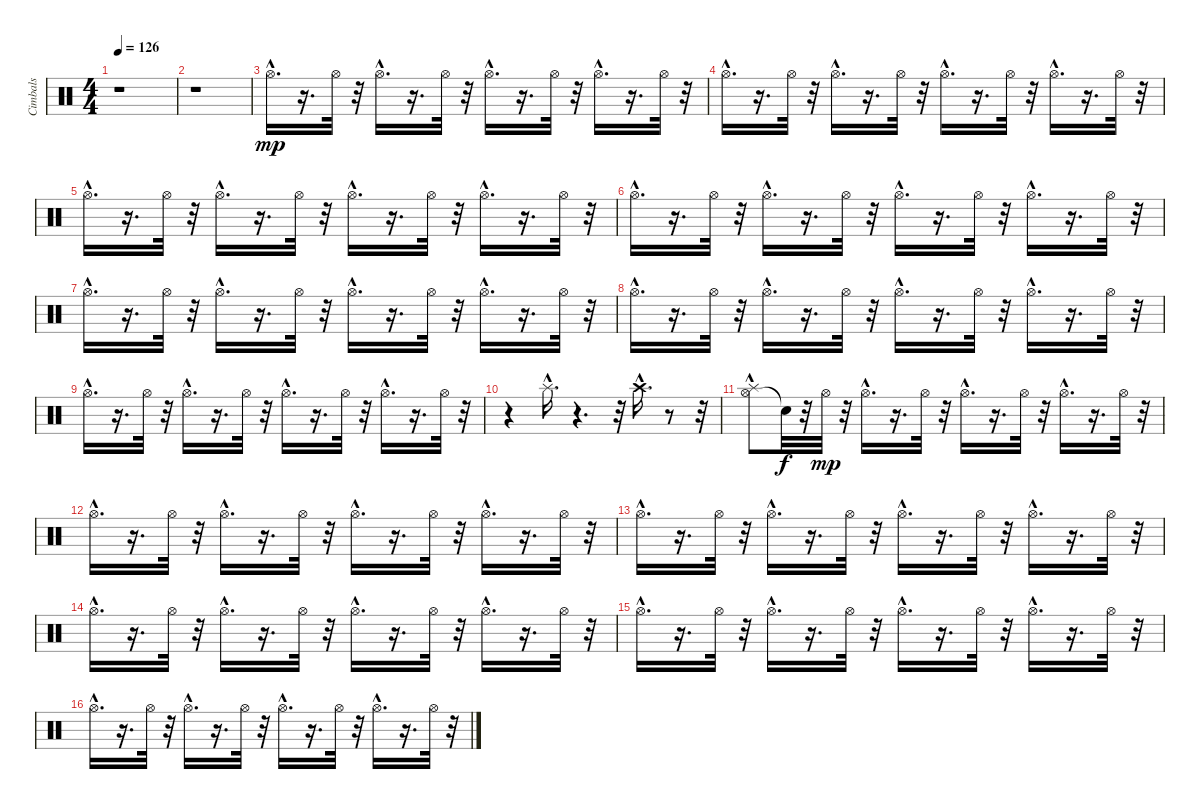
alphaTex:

\track ("Cimbals" "Cimbals") {instrument percussion}
\staff {score}
\articulation defaults
\ts (4 4)
\tempo 126
\clef neutral
\ks c
r.1{dy mp} |
r.1 |
"Hi-Hat (open)"{hac}.16{d} r.16{d} "Hi-Hat (open)".32 r.32 "Hi-Hat (open)"{hac}.16{d} r.16{d} "Hi-Hat (open)".32 r.32 "Hi-Hat (open)"{hac}.16{d} r.16{d} "Hi-Hat (open)".32 r.32 "Hi-Hat (open)"{hac}.16{d} r.16{d} "Hi-Hat (open)".32 r.32 |
"Hi-Hat (open)"{hac}.16{d} r.16{d} "Hi-Hat (open)".32 r.32 "Hi-Hat (open)"{hac}.16{d} r.16{d} "Hi-Hat (open)".32 r.32 "Hi-Hat (open)"{hac}.16{d} r.16{d} "Hi-Hat (open)".32 r.32 "Hi-Hat (open)"{hac}.16{d} r.16{d} "Hi-Hat (open)".32 r.32 |
"Hi-Hat (open)"{hac}.16{d} r.16{d} "Hi-Hat (open)".32 r.32 "Hi-Hat (open)"{hac}.16{d} r.16{d} "Hi-Hat (open)".32 r.32 "Hi-Hat (open)"{hac}.16{d} r.16{d} "Hi-Hat (open)".32 r.32 "Hi-Hat (open)"{hac}.16{d} r.16{d} "Hi-Hat (open)".32 r.32 |
"Hi-Hat (open)"{hac}.16{d} r.16{d} "Hi-Hat (open)".32 r.32 "Hi-Hat (open)"{hac}.16{d} r.16{d} "Hi-Hat (open)".32 r.32 "Hi-Hat (open)"{hac}.16{d} r.16{d} "Hi-Hat (open)".32 r.32 "Hi-Hat (open)"{hac}.16{d} r.16{d} "Hi-Hat (open)".32 r.32 |
"Hi-Hat (open)"{hac}.16{d} r.16{d} "Hi-Hat (open)".32 r.32 "Hi-Hat (open)"{hac}.16{d} r.16{d} "Hi-Hat (open)".32 r.32 "Hi-Hat (open)"{hac}.16{d} r.16{d} "Hi-Hat (open)".32 r.32 "Hi-Hat (open)"{hac}.16{d} r.16{d} "Hi-Hat (open)".32 r.32 |
"Hi-Hat (open)"{hac}.16{d} r.16{d} "Hi-Hat (open)".32 r.32 "Hi-Hat (open)"{hac}.16{d} r.16{d} "Hi-Hat (open)".32 r.32 "Hi-Hat (open)"{hac}.16{d} r.16{d} "Hi-Hat (open)".32 r.32 "Hi-Hat (open)"{hac}.16{d} r.16{d} "Hi-Hat (open)".32 r.32 |
"Hi-Hat (open)"{hac}.16{d} r.16{d} "Hi-Hat (open)".32 r.32 "Hi-Hat (open)"{hac}.16{d} r.16{d} "Hi-Hat (open)".32 r.32 "Hi-Hat (open)"{hac}.16{d} r.16{d} "Hi-Hat (open)".32 r.32 "Hi-Hat (open)"{hac}.16{d} r.16{d} "Hi-Hat (open)".32 r.32 |
r.4 "Splash (hit)"{hac}.16{d} r.4{d} r.32 "Crash high (hit)"{hac}.16{d} r.8 r.32 |
("Hi-Hat (open)"{hac} "Splash (hit)").8 "Snare (hit)"{t}.32{dy f} r.32 "Hi-Hat (open)".32{dy mp} r.32 "Hi-Hat (open)"{hac}.16{d} r.16{d} "Hi-Hat (open)".32 r.32 "Hi-Hat (open)"{hac}.16{d} r.16{d} "Hi-Hat (open)".32 r.32 "Hi-Hat (open)"{hac}.16{d} r.16{d} "Hi-Hat (open)".32 r.32 |
"Hi-Hat (open)"{hac}.16{d} r.16{d} "Hi-Hat (open)".32 r.32 "Hi-Hat (open)"{hac}.16{d} r.16{d} "Hi-Hat (open)".32 r.32 "Hi-Hat (open)"{hac}.16{d} r.16{d} "Hi-Hat (open)".32 r.32 "Hi-Hat (open)"{hac}.16{d} r.16{d} "Hi-Hat (open)".32 r.32 |
"Hi-Hat (open)"{hac}.16{d} r.16{d} "Hi-Hat (open)".32 r.32 "Hi-Hat (open)"{hac}.16{d} r.16{d} "Hi-Hat (open)".32 r.32 "Hi-Hat (open)"{hac}.16{d} r.16{d} "Hi-Hat (open)".32 r.32 "Hi-Hat (open)"{hac}.16{d} r.16{d} "Hi-Hat (open)".32 r.32 |
"Hi-Hat (open)"{hac}.16{d} r.16{d} "Hi-Hat (open)".32 r.32 "Hi-Hat (open)"{hac}.16{d} r.16{d} "Hi-Hat (open)".32 r.32 "Hi-Hat (open)"{hac}.16{d} r.16{d} "Hi-Hat (open)".32 r.32 "Hi-Hat (open)"{hac}.16{d} r.16{d} "Hi-Hat (open)".32 r.32 |
"Hi-Hat (open)"{hac}.16{d} r.16{d} "Hi-Hat (open)".32 r.32 "Hi-Hat (open)"{hac}.16{d} r.16{d} "Hi-Hat (open)".32 r.32 "Hi-Hat (open)"{hac}.16{d} r.16{d} "Hi-Hat (open)".32 r.32 "Hi-Hat (open)"{hac}.16{d} r.16{d} "Hi-Hat (open)".32 r.32 |
"Hi-Hat (open)"{hac}.16{d} r.16{d} "Hi-Hat (open)".32 r.32 "Hi-Hat (open)"{hac}.16{d} r.16{d} "Hi-Hat (open)".32 r.32 "Hi-Hat (open)"{hac}.16{d} r.16{d} "Hi-Hat (open)".32 r.32 "Hi-Hat (open)"{hac}.16{d} r.16{d} "Hi-Hat (open)".32 r.32
